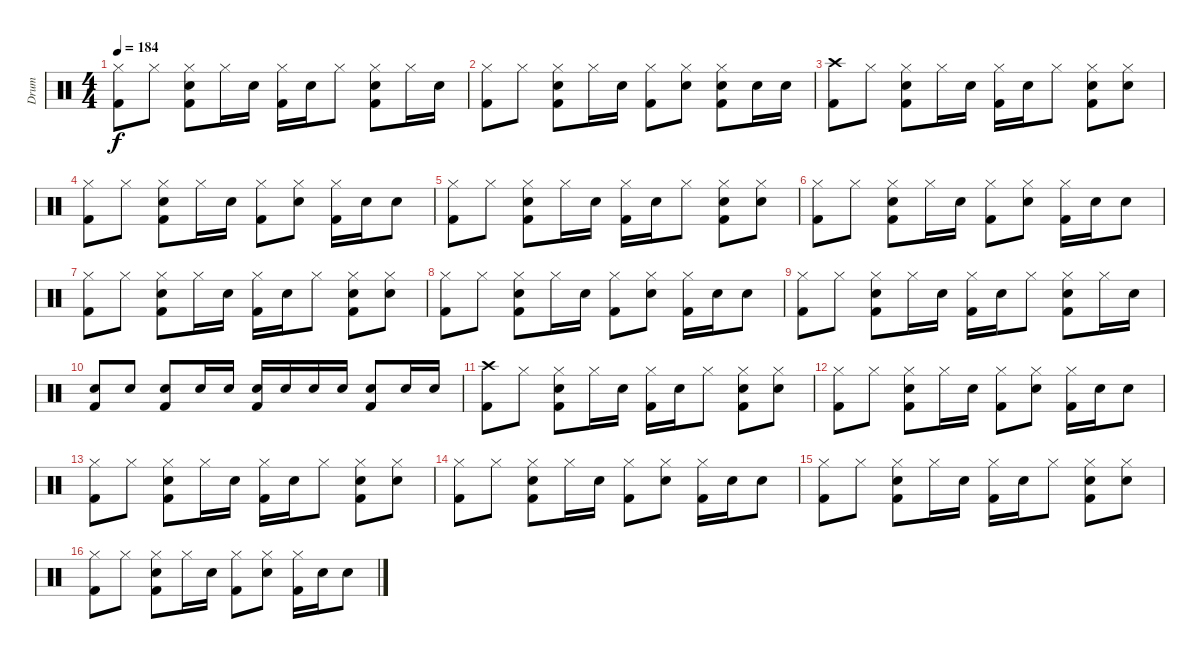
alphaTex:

\track ("Drum" "Drum") {instrument percussion}
\staff {score}
\articulation defaults
\ts (4 4)
\tempo 184
\clef neutral
\ks c
("Hi-Hat (closed)" "Kick (hit) 2").8{dy f} "Hi-Hat (closed)".8 ("Hi-Hat (closed)" "Electric Snare (hit)" "Kick (hit) 2").8 "Hi-Hat (closed)".16 "Electric Snare (hit)".16 ("Hi-Hat (closed)" "Kick (hit) 2").16 "Electric Snare (hit)".16 "Hi-Hat (closed)".8 ("Hi-Hat (closed)" "Electric Snare (hit)" "Kick (hit) 2").8 "Hi-Hat (closed)".16 "Electric Snare (hit)".16 |
("Hi-Hat (closed)" "Kick (hit) 2").8 "Hi-Hat (closed)".8 ("Hi-Hat (closed)" "Electric Snare (hit)" "Kick (hit) 2").8 "Hi-Hat (closed)".16 "Electric Snare (hit)".16 ("Hi-Hat (closed)" "Kick (hit) 2").8 ("Hi-Hat (closed)" "Electric Snare (hit)").8 ("Hi-Hat (closed)" "Electric Snare (hit)" "Kick (hit) 2").8 "Electric Snare (hit)".16 "Electric Snare (hit)".16 |
("Crash high (hit)" "Kick (hit) 2").8 "Hi-Hat (closed)".8 ("Hi-Hat (closed)" "Electric Snare (hit)" "Kick (hit) 2").8 "Hi-Hat (closed)".16 "Electric Snare (hit)".16 ("Hi-Hat (closed)" "Kick (hit) 2").16 "Electric Snare (hit)".16 "Hi-Hat (closed)".8 ("Hi-Hat (closed)" "Electric Snare (hit)" "Kick (hit) 2").8 ("Hi-Hat (closed)" "Electric Snare (hit)").8 |
("Hi-Hat (closed)" "Kick (hit) 2").8 "Hi-Hat (closed)".8 ("Hi-Hat (closed)" "Electric Snare (hit)" "Kick (hit) 2").8 "Hi-Hat (closed)".16 "Electric Snare (hit)".16 ("Hi-Hat (closed)" "Kick (hit) 2").8 ("Hi-Hat (closed)" "Electric Snare (hit)").8 ("Hi-Hat (closed)" "Kick (hit) 2").16 "Electric Snare (hit)".16 "Electric Snare (hit)".8 |
("Hi-Hat (closed)" "Kick (hit) 2").8 "Hi-Hat (closed)".8 ("Hi-Hat (closed)" "Electric Snare (hit)" "Kick (hit) 2").8 "Hi-Hat (closed)".16 "Electric Snare (hit)".16 ("Hi-Hat (closed)" "Kick (hit) 2").16 "Electric Snare (hit)".16 "Hi-Hat (closed)".8 ("Hi-Hat (closed)" "Electric Snare (hit)" "Kick (hit) 2").8 ("Hi-Hat (closed)" "Electric Snare (hit)").8 |
("Hi-Hat (closed)" "Kick (hit) 2").8 "Hi-Hat (closed)".8 ("Hi-Hat (closed)" "Electric Snare (hit)" "Kick (hit) 2").8 "Hi-Hat (closed)".16 "Electric Snare (hit)".16 ("Hi-Hat (closed)" "Kick (hit) 2").8 ("Hi-Hat (closed)" "Electric Snare (hit)").8 ("Hi-Hat (closed)" "Kick (hit) 2").16 "Electric Snare (hit)".16 "Electric Snare (hit)".8 |
("Hi-Hat (closed)" "Kick (hit) 2").8 "Hi-Hat (closed)".8 ("Hi-Hat (closed)" "Electric Snare (hit)" "Kick (hit) 2").8 "Hi-Hat (closed)".16 "Electric Snare (hit)".16 ("Hi-Hat (closed)" "Kick (hit) 2").16 "Electric Snare (hit)".16 "Hi-Hat (closed)".8 ("Hi-Hat (closed)" "Electric Snare (hit)" "Kick (hit) 2").8 ("Hi-Hat (closed)" "Electric Snare (hit)").8 |
("Hi-Hat (closed)" "Kick (hit) 2").8 "Hi-Hat (closed)".8 ("Hi-Hat (closed)" "Electric Snare (hit)" "Kick (hit) 2").8 "Hi-Hat (closed)".16 "Electric Snare (hit)".16 ("Hi-Hat (closed)" "Kick (hit) 2").8 ("Hi-Hat (closed)" "Electric Snare (hit)").8 ("Hi-Hat (closed)" "Kick (hit) 2").16 "Electric Snare (hit)".16 "Electric Snare (hit)".8 |
("Hi-Hat (closed)" "Kick (hit) 2").8 "Hi-Hat (closed)".8 ("Hi-Hat (closed)" "Electric Snare (hit)" "Kick (hit) 2").8 "Hi-Hat (closed)".16 "Electric Snare (hit)".16 ("Hi-Hat (closed)" "Kick (hit) 2").16 "Electric Snare (hit)".16 "Hi-Hat (closed)".8 ("Hi-Hat (closed)" "Electric Snare (hit)" "Kick (hit) 2").8 "Hi-Hat (closed)".16 "Electric Snare (hit)".16 |
("Electric Snare (hit)" "Kick (hit) 2").8 "Electric Snare (hit)".8 ("Electric Snare (hit)" "Kick (hit) 2").8 "Electric Snare (hit)".16 "Electric Snare (hit)".16 ("Electric Snare (hit)" "Kick (hit) 2").16 "Electric Snare (hit)".16 "Electric Snare (hit)".16 "Electric Snare (hit)".16 ("Electric Snare (hit)" "Kick (hit) 2").8 "Electric Snare (hit)".16 "Electric Snare (hit)".16 |
("Crash high (hit)" "Kick (hit) 2").8 "Hi-Hat (closed)".8 ("Hi-Hat (closed)" "Electric Snare (hit)" "Kick (hit) 2").8 "Hi-Hat (closed)".16 "Electric Snare (hit)".16 ("Hi-Hat (closed)" "Kick (hit) 2").16 "Electric Snare (hit)".16 "Hi-Hat (closed)".8 ("Hi-Hat (closed)" "Electric Snare (hit)" "Kick (hit) 2").8 ("Hi-Hat (closed)" "Electric Snare (hit)").8 |
("Hi-Hat (closed)" "Kick (hit) 2").8 "Hi-Hat (closed)".8 ("Hi-Hat (closed)" "Electric Snare (hit)" "Kick (hit) 2").8 "Hi-Hat (closed)".16 "Electric Snare (hit)".16 ("Hi-Hat (closed)" "Kick (hit) 2").8 ("Hi-Hat (closed)" "Electric Snare (hit)").8 ("Hi-Hat (closed)" "Kick (hit) 2").16 "Electric Snare (hit)".16 "Electric Snare (hit)".8 |
("Hi-Hat (closed)" "Kick (hit) 2").8 "Hi-Hat (closed)".8 ("Hi-Hat (closed)" "Electric Snare (hit)" "Kick (hit) 2").8 "Hi-Hat (closed)".16 "Electric Snare (hit)".16 ("Hi-Hat (closed)" "Kick (hit) 2").16 "Electric Snare (hit)".16 "Hi-Hat (closed)".8 ("Hi-Hat (closed)" "Electric Snare (hit)" "Kick (hit) 2").8 ("Hi-Hat (closed)" "Electric Snare (hit)").8 |
("Hi-Hat (closed)" "Kick (hit) 2").8 "Hi-Hat (closed)".8 ("Hi-Hat (closed)" "Electric Snare (hit)" "Kick (hit) 2").8 "Hi-Hat (closed)".16 "Electric Snare (hit)".16 ("Hi-Hat (closed)" "Kick (hit) 2").8 ("Hi-Hat (closed)" "Electric Snare (hit)").8 ("Hi-Hat (closed)" "Kick (hit) 2").16 "Electric Snare (hit)".16 "Electric Snare (hit)".8 |
("Hi-Hat (closed)" "Kick (hit) 2").8 "Hi-Hat (closed)".8 ("Hi-Hat (closed)" "Electric Snare (hit)" "Kick (hit) 2").8 "Hi-Hat (closed)".16 "Electric Snare (hit)".16 ("Hi-Hat (closed)" "Kick (hit) 2").16 "Electric Snare (hit)".16 "Hi-Hat (closed)".8 ("Hi-Hat (closed)" "Electric Snare (hit)" "Kick (hit) 2").8 ("Hi-Hat (closed)" "Electric Snare (hit)").8 |
("Hi-Hat (closed)" "Kick (hit) 2").8 "Hi-Hat (closed)".8 ("Hi-Hat (closed)" "Electric Snare (hit)" "Kick (hit) 2").8 "Hi-Hat (closed)".16 "Electric Snare (hit)".16 ("Hi-Hat (closed)" "Kick (hit) 2").8 ("Hi-Hat (closed)" "Electric Snare (hit)").8 ("Hi-Hat (closed)" "Kick (hit) 2").16 "Electric Snare (hit)".16 "Electric Snare (hit)".8
